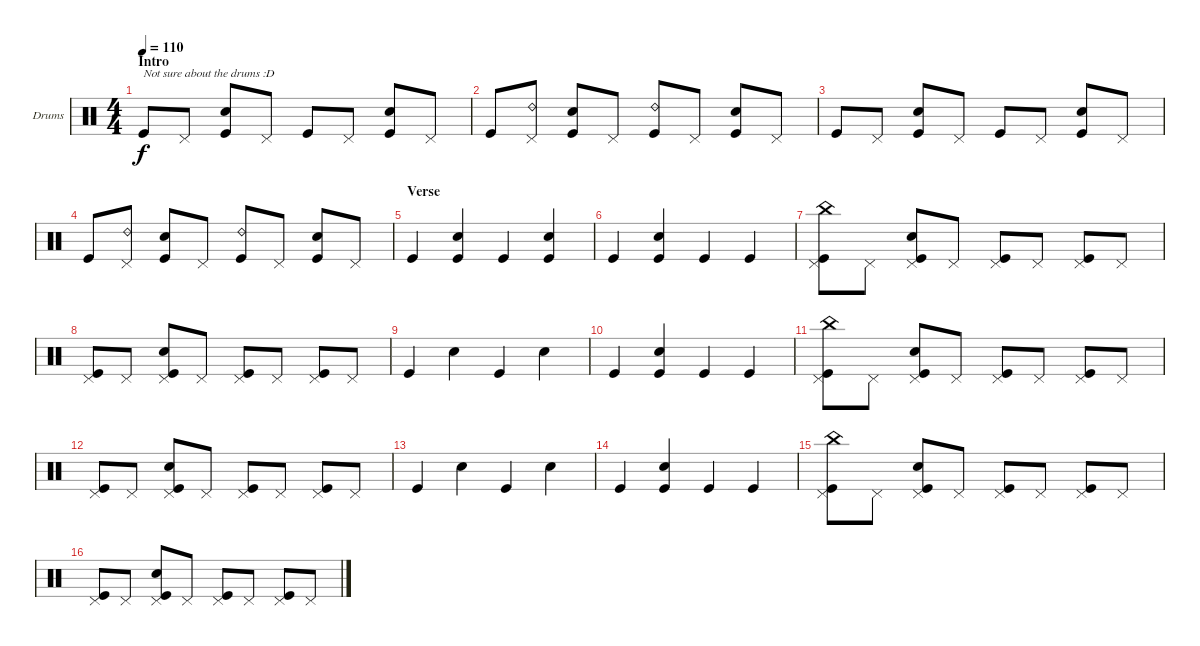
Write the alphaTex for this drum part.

\bracketExtendMode groupsimilarinstruments
\firstSystemTrackNameOrientation horizontal
\otherSystemsTrackNameOrientation horizontal
\track ("Drumkit" "Drums") {instrument percussion}
\staff {score}
\articulation defaults
\ts (4 4)
\section ("" "Intro")
\tempo 110
\clef neutral
\ks c "Kick (hit)".8{txt "Not sure about the drums :D " dy f} "Pedal Hi-Hat (hit)".8
("Snare (hit) 2" "Kick (hit)").8 "Pedal Hi-Hat (hit)".8 "Kick (hit)".8 "Pedal Hi-Hat (hit)".8 ("Snare (hit) 2" "Kick (hit)").8 "Pedal Hi-Hat (hit)".8 |
"Kick (hit)".8 ("Pedal Hi-Hat (hit)" "Ride (bell) 2").8 ("Snare (hit) 2" "Kick (hit)").8 "Pedal Hi-Hat (hit)".8 ("Kick (hit)" "Ride (bell) 2").8 "Pedal Hi-Hat (hit)".8 ("Snare (hit) 2" "Kick (hit)").8 "Pedal Hi-Hat (hit)".8 |
"Kick (hit)".8 "Pedal Hi-Hat (hit)".8 ("Snare (hit) 2" "Kick (hit)").8 "Pedal Hi-Hat (hit)".8 "Kick (hit)".8 "Pedal Hi-Hat (hit)".8 ("Snare (hit) 2" "Kick (hit)").8 "Pedal Hi-Hat (hit)".8 |
"Kick (hit)".8 ("Pedal Hi-Hat (hit)" "Ride (bell) 2").8 ("Snare (hit) 2" "Kick (hit)").8 "Pedal Hi-Hat (hit)".8 ("Kick (hit)" "Ride (bell) 2").8 "Pedal Hi-Hat (hit)".8 ("Snare (hit) 2" "Kick (hit)").8 "Pedal Hi-Hat (hit)".8 |
\section ("" "Verse")
"Kick (hit)".4 ("Snare (hit) 2" "Kick (hit)").4 "Kick (hit)".4 ("Snare (hit) 2" "Kick (hit)").4 |
"Kick (hit)".4 ("Snare (hit) 2" "Kick (hit)").4 "Kick (hit)".4 "Kick (hit)".4 |
("Kick (hit)" "Pedal Hi-Hat (hit)" "China (hit)").8 "Pedal Hi-Hat (hit)".8 ("Snare (hit) 2" "Kick (hit)" "Pedal Hi-Hat (hit)").8 "Pedal Hi-Hat (hit)".8 ("Kick (hit)" "Pedal Hi-Hat (hit)").8 "Pedal Hi-Hat (hit)".8 ("Kick (hit)" "Pedal Hi-Hat (hit)").8 "Pedal Hi-Hat (hit)".8 |
("Kick (hit)" "Pedal Hi-Hat (hit)").8 "Pedal Hi-Hat (hit)".8 ("Snare (hit) 2" "Kick (hit)" "Pedal Hi-Hat (hit)").8 "Pedal Hi-Hat (hit)".8 ("Kick (hit)" "Pedal Hi-Hat (hit)").8 "Pedal Hi-Hat (hit)".8 ("Kick (hit)" "Pedal Hi-Hat (hit)").8 "Pedal Hi-Hat (hit)".8 |
"Kick (hit)".4 "Snare (hit) 2".4 "Kick (hit)".4 "Snare (hit) 2".4 |
"Kick (hit)".4 ("Snare (hit) 2" "Kick (hit)").4 "Kick (hit)".4 "Kick (hit)".4 |
("Kick (hit)" "Pedal Hi-Hat (hit)" "China (hit)").8 "Pedal Hi-Hat (hit)".8 ("Snare (hit) 2" "Kick (hit)" "Pedal Hi-Hat (hit)").8 "Pedal Hi-Hat (hit)".8 ("Kick (hit)" "Pedal Hi-Hat (hit)").8 "Pedal Hi-Hat (hit)".8 ("Kick (hit)" "Pedal Hi-Hat (hit)").8 "Pedal Hi-Hat (hit)".8 |
("Kick (hit)" "Pedal Hi-Hat (hit)").8 "Pedal Hi-Hat (hit)".8 ("Snare (hit) 2" "Kick (hit)" "Pedal Hi-Hat (hit)").8 "Pedal Hi-Hat (hit)".8 ("Kick (hit)" "Pedal Hi-Hat (hit)").8 "Pedal Hi-Hat (hit)".8 ("Kick (hit)" "Pedal Hi-Hat (hit)").8 "Pedal Hi-Hat (hit)".8 |
"Kick (hit)".4 "Snare (hit) 2".4 "Kick (hit)".4 "Snare (hit) 2".4 |
"Kick (hit)".4 ("Snare (hit) 2" "Kick (hit)").4 "Kick (hit)".4 "Kick (hit)".4 |
("Kick (hit)" "Pedal Hi-Hat (hit)" "China (hit)").8 "Pedal Hi-Hat (hit)".8 ("Snare (hit) 2" "Kick (hit)" "Pedal Hi-Hat (hit)").8 "Pedal Hi-Hat (hit)".8 ("Kick (hit)" "Pedal Hi-Hat (hit)").8 "Pedal Hi-Hat (hit)".8 ("Kick (hit)" "Pedal Hi-Hat (hit)").8 "Pedal Hi-Hat (hit)".8 |
("Kick (hit)" "Pedal Hi-Hat (hit)").8 "Pedal Hi-Hat (hit)".8 ("Snare (hit) 2" "Kick (hit)" "Pedal Hi-Hat (hit)").8 "Pedal Hi-Hat (hit)".8 ("Kick (hit)" "Pedal Hi-Hat (hit)").8 "Pedal Hi-Hat (hit)".8 ("Kick (hit)" "Pedal Hi-Hat (hit)").8 "Pedal Hi-Hat (hit)".8
